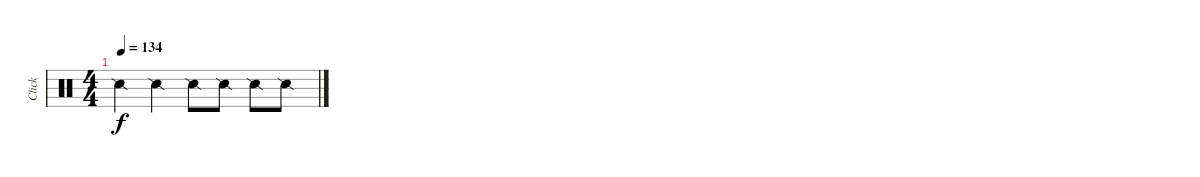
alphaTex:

\track ("Click" "Click") {instrument percussion}
\staff {score}
\articulation defaults
\ts (4 4)
\tempo 134
\clef neutral
\ks c "Snare (side stick) 2".4{dy f} "Snare (side stick) 2".4 "Snare (side stick) 2".8 "Snare (side stick) 2".8 "Snare (side stick) 2".8 "Snare (side stick) 2".8
